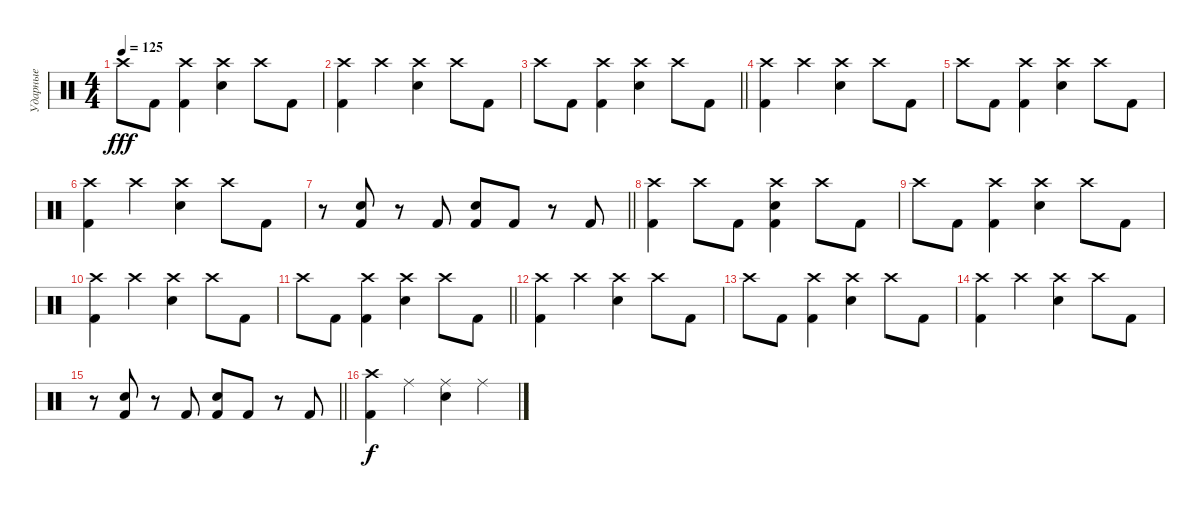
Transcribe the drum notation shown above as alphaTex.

\track ("Ударные" "Ударные") {instrument percussion}
\staff {score}
\articulation defaults
\ts (4 4)
\tempo 125
\clef neutral
\ks c "Crash high (hit)".8{dy fff} "Kick (hit) 2".8
("Crash high (hit)" "Kick (hit) 2").4 ("Crash high (hit)" "Snare (hit) 2").4 "Crash high (hit)".8 "Kick (hit) 2".8 |
("Crash high (hit)" "Kick (hit) 2").4 "Crash high (hit)".4 ("Crash high (hit)" "Snare (hit) 2").4 "Crash high (hit)".8 "Kick (hit) 2".8 |
\barLineRight lightlight "Crash high (hit)".8 "Kick (hit) 2".8
("Crash high (hit)" "Kick (hit) 2").4 ("Crash high (hit)" "Snare (hit) 2").4 "Crash high (hit)".8 "Kick (hit) 2".8 |
("Crash high (hit)" "Kick (hit) 2").4 "Crash high (hit)".4 ("Crash high (hit)" "Snare (hit) 2").4 "Crash high (hit)".8 "Kick (hit) 2".8 |
"Crash high (hit)".8 "Kick (hit) 2".8 ("Crash high (hit)" "Kick (hit) 2").4 ("Crash high (hit)" "Snare (hit) 2").4 "Crash high (hit)".8 "Kick (hit) 2".8 |
("Crash high (hit)" "Kick (hit) 2").4 "Crash high (hit)".4 ("Crash high (hit)" "Snare (hit) 2").4 "Crash high (hit)".8 "Kick (hit) 2".8 |
\barLineRight lightlight
r.8 ("Snare (hit) 2" "Kick (hit) 2").8 r.8 "Kick (hit) 2".8 ("Snare (hit) 2" "Kick (hit) 2").8 "Kick (hit) 2".8 r.8 "Kick (hit) 2".8 |
("Crash high (hit)" "Kick (hit) 2").4 "Crash high (hit)".8 "Kick (hit) 2".8 ("Crash high (hit)" "Snare (hit) 2" "Kick (hit) 2").4 "Crash high (hit)".8 "Kick (hit) 2".8 |
"Crash high (hit)".8 "Kick (hit) 2".8 ("Crash high (hit)" "Kick (hit) 2").4 ("Crash high (hit)" "Snare (hit) 2").4 "Crash high (hit)".8 "Kick (hit) 2".8 |
("Crash high (hit)" "Kick (hit) 2").4 "Crash high (hit)".4 ("Crash high (hit)" "Snare (hit) 2").4 "Crash high (hit)".8 "Kick (hit) 2".8 |
\barLineRight lightlight "Crash high (hit)".8 "Kick (hit) 2".8
("Crash high (hit)" "Kick (hit) 2").4 ("Crash high (hit)" "Snare (hit) 2").4 "Crash high (hit)".8 "Kick (hit) 2".8 |
("Crash high (hit)" "Kick (hit) 2").4 "Crash high (hit)".4 ("Crash high (hit)" "Snare (hit) 2").4 "Crash high (hit)".8 "Kick (hit) 2".8 |
"Crash high (hit)".8 "Kick (hit) 2".8 ("Crash high (hit)" "Kick (hit) 2").4 ("Crash high (hit)" "Snare (hit) 2").4 "Crash high (hit)".8 "Kick (hit) 2".8 |
("Crash high (hit)" "Kick (hit) 2").4 "Crash high (hit)".4 ("Crash high (hit)" "Snare (hit) 2").4 "Crash high (hit)".8 "Kick (hit) 2".8 |
\barLineRight lightlight
r.8 ("Snare (hit) 2" "Kick (hit) 2").8 r.8 "Kick (hit) 2".8 ("Snare (hit) 2" "Kick (hit) 2").8 "Kick (hit) 2".8 r.8 "Kick (hit) 2".8 |
("Crash high (hit)" "Kick (hit) 2").4{dy f} "Ride (middle)".4 ("Ride (middle)" "Electric Snare (hit)").4 "Ride (middle)".4
